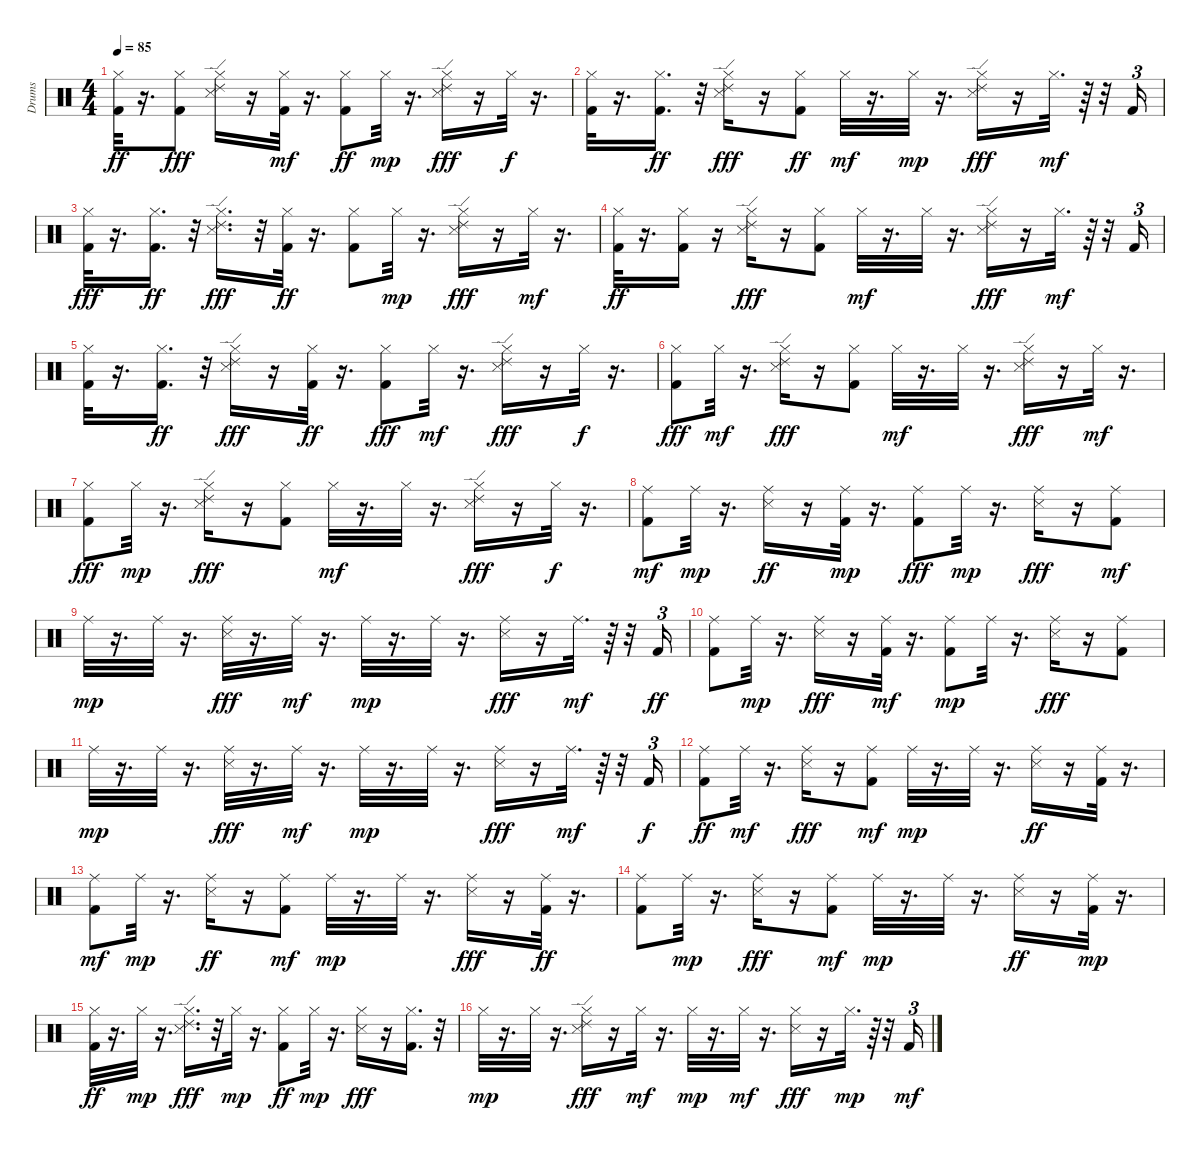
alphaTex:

\track ("Drums" "Drums") {instrument percussion}
\staff {score}
\articulation defaults
\ts (4 4)
\tempo 85
\clef neutral
\ks c
("Hi-Hat (closed)" "Kick (hit) 2").32{dy ff} r.16{d} ("Hi-Hat (closed)" "Kick (hit) 2").8{dy fff} ("Ride (edge) 2" "Hi-Hat (closed)" "Snare (side stick) 3").16 r.16 ("Hi-Hat (closed)" "Kick (hit) 2").32{dy mf} r.16{d} ("Hi-Hat (closed)" "Kick (hit) 2").8{dy ff} "Hi-Hat (closed)".32{dy mp} r.16{d} ("Ride (edge) 2" "Hi-Hat (closed)" "Snare (side stick) 3").16{dy fff} r.16 "Hi-Hat (closed)".32{dy f} r.16{d} |
("Hi-Hat (closed)" "Kick (hit) 2").32 r.16{d} ("Hi-Hat (closed)" "Kick (hit) 2").16{d dy ff} r.32 ("Ride (edge) 2" "Hi-Hat (closed)" "Snare (side stick) 3").16{dy fff} r.16 ("Hi-Hat (closed)" "Kick (hit) 2").8{dy ff} "Hi-Hat (closed)".32{dy mf} r.16{d} "Hi-Hat (closed)".32{dy mp} r.16{d} ("Ride (edge) 2" "Hi-Hat (closed)" "Snare (side stick) 3").16{dy fff} r.16 "Hi-Hat (closed)".32{d dy mf} r.64 r.32 "Kick (hit) 2".16{tu (3 2)} |
("Hi-Hat (closed)" "Kick (hit) 2").32{dy fff} r.16{d} ("Hi-Hat (closed)" "Kick (hit) 2").16{d dy ff} r.32 ("Ride (edge) 2" "Hi-Hat (closed)" "Snare (side stick) 3").16{d dy fff} r.32 ("Hi-Hat (closed)" "Kick (hit) 2").32{dy ff} r.16{d} ("Hi-Hat (closed)" "Kick (hit) 2").8 "Hi-Hat (closed)".32{dy mp} r.16{d} ("Ride (edge) 2" "Hi-Hat (closed)" "Snare (side stick) 3").16{dy fff} r.16 "Hi-Hat (closed)".32{dy mf} r.16{d} |
("Hi-Hat (closed)" "Kick (hit) 2").32{dy ff} r.16{d} ("Hi-Hat (closed)" "Kick (hit) 2").16 r.16 ("Ride (edge) 2" "Hi-Hat (closed)" "Snare (side stick) 3").16{dy fff} r.16 ("Hi-Hat (closed)" "Kick (hit) 2").8 "Hi-Hat (closed)".32{dy mf} r.16{d} "Hi-Hat (closed)".32 r.16{d} ("Ride (edge) 2" "Hi-Hat (closed)" "Snare (side stick) 3").16{dy fff} r.16 "Hi-Hat (closed)".32{d dy mf} r.64 r.32 "Kick (hit) 2".16{tu (3 2)} |
("Hi-Hat (closed)" "Kick (hit) 2").32 r.16{d} ("Hi-Hat (closed)" "Kick (hit) 2").16{d dy ff} r.32 ("Ride (edge) 2" "Hi-Hat (closed)" "Snare (side stick) 3").16{dy fff} r.16 ("Hi-Hat (closed)" "Kick (hit) 2").32{dy ff} r.16{d} ("Hi-Hat (closed)" "Kick (hit) 2").8{dy fff} "Hi-Hat (closed)".32{dy mf} r.16{d} ("Ride (edge) 2" "Hi-Hat (closed)" "Snare (side stick) 3").16{dy fff} r.16 "Hi-Hat (closed)".32{dy f} r.16{d} |
("Hi-Hat (closed)" "Kick (hit) 2").8{dy fff} "Hi-Hat (closed)".32{dy mf} r.16{d} ("Ride (edge) 2" "Hi-Hat (closed)" "Snare (side stick) 3").16{dy fff} r.16 ("Hi-Hat (closed)" "Kick (hit) 2").8 "Hi-Hat (closed)".32{dy mf} r.16{d} "Hi-Hat (closed)".32 r.16{d} ("Ride (edge) 2" "Hi-Hat (closed)" "Snare (side stick) 3").16{dy fff} r.16 "Hi-Hat (closed)".32{dy mf} r.16{d} |
("Hi-Hat (closed)" "Kick (hit) 2").8{dy fff} "Hi-Hat (closed)".32{dy mp} r.16{d} ("Ride (edge) 2" "Hi-Hat (closed)" "Snare (side stick) 3").16{dy fff} r.16 ("Hi-Hat (closed)" "Kick (hit) 2").8 "Hi-Hat (closed)".32{dy mf} r.16{d} "Hi-Hat (closed)".32 r.16{d} ("Ride (edge) 2" "Hi-Hat (closed)" "Snare (side stick) 3").16{dy fff} r.16 "Hi-Hat (closed)".32{dy f} r.16{d} |
("Kick (hit) 2" "Ride (middle)").8{dy mf} "Ride (middle)".32{dy mp} r.16{d} ("Snare (side stick) 3" "Ride (middle)").16{dy ff} r.16 ("Kick (hit) 2" "Ride (middle)").32{dy mp} r.16{d} ("Ride (middle)" "Kick (hit) 2").8{dy fff} "Ride (middle)".32{dy mp} r.16{d} ("Ride (middle)" "Snare (side stick) 3").16{dy fff} r.16 ("Kick (hit) 2" "Ride (middle)").8{dy mf} |
"Ride (middle)".32{dy mp} r.16{d} "Ride (middle)".32 r.16{d} ("Ride (middle)" "Snare (side stick) 3").32{dy fff} r.16{d} "Ride (middle)".32{dy mf} r.16{d} "Ride (middle)".32{dy mp} r.16{d} "Ride (middle)".32 r.16{d} ("Ride (middle)" "Snare (side stick) 3").16{dy fff} r.16 "Ride (middle)".32{d dy mf} r.64 r.32 "Kick (hit) 2".16{tu (3 2) dy ff} |
("Ride (middle)" "Kick (hit) 2").8 "Ride (middle)".32{dy mp} r.16{d} ("Ride (middle)" "Snare (side stick) 3").16{dy fff} r.16 ("Ride (middle)" "Kick (hit) 2").32{dy mf} r.16{d} ("Kick (hit) 2" "Ride (middle)").8{dy mp} "Ride (middle)".32 r.16{d} ("Ride (middle)" "Snare (side stick) 3").16{dy fff} r.16 ("Ride (middle)" "Kick (hit) 2").8 |
"Ride (middle)".32{dy mp} r.16{d} "Ride (middle)".32 r.16{d} ("Ride (middle)" "Snare (side stick) 3").32{dy fff} r.16{d} "Ride (middle)".32{dy mf} r.16{d} "Ride (middle)".32{dy mp} r.16{d} "Ride (middle)".32 r.16{d} ("Ride (middle)" "Snare (side stick) 3").16{dy fff} r.16 "Ride (middle)".32{d dy mf} r.64 r.32 "Kick (hit) 2".16{tu (3 2) dy f} |
("Ride (middle)" "Kick (hit) 2").8{dy ff} "Ride (middle)".32{dy mf} r.16{d} ("Ride (middle)" "Snare (side stick) 3").16{dy fff} r.16 ("Kick (hit) 2" "Ride (middle)").8{dy mf} "Ride (middle)".32{dy mp} r.16{d} "Ride (middle)".32 r.16{d} ("Snare (side stick) 3" "Ride (middle)").16{dy ff} r.16 ("Ride (middle)" "Kick (hit) 2").32 r.16{d} |
("Kick (hit) 2" "Ride (middle)").8{dy mf} "Ride (middle)".32{dy mp} r.16{d} ("Snare (side stick) 3" "Ride (middle)").16{dy ff} r.16 ("Kick (hit) 2" "Ride (middle)").8{dy mf} "Ride (middle)".32{dy mp} r.16{d} "Ride (middle)".32 r.16{d} ("Ride (middle)" "Snare (side stick) 3").16{dy fff} r.16 ("Ride (middle)" "Kick (hit) 2").32{dy ff} r.16{d} |
("Ride (middle)" "Kick (hit) 2").8 "Ride (middle)".32{dy mp} r.16{d} ("Ride (middle)" "Snare (side stick) 3").16{dy fff} r.16 ("Kick (hit) 2" "Ride (middle)").8{dy mf} "Ride (middle)".32{dy mp} r.16{d} "Ride (middle)".32 r.16{d} ("Snare (side stick) 3" "Ride (middle)").16{dy ff} r.16 ("Ride (middle)" "Kick (hit) 2").32{dy mp} r.16{d} |
("Hi-Hat (closed)" "Kick (hit) 2").32{dy ff} r.16{d} "Hi-Hat (closed)".32{dy mp} r.16{d} ("Ride (edge) 2" "Hi-Hat (closed)" "Snare (side stick) 3").16{d dy fff} r.32 "Hi-Hat (closed)".32{dy mp} r.16{d} ("Hi-Hat (closed)" "Kick (hit) 2").8{dy ff} "Hi-Hat (closed)".32{dy mp} r.16{d} ("Hi-Hat (closed)" "Snare (side stick) 3").16{dy fff} r.16 ("Hi-Hat (closed)" "Kick (hit) 2").16{d} r.32 |
"Hi-Hat (closed)".32{dy mp} r.16{d} "Hi-Hat (closed)".32 r.16{d} ("Ride (edge) 2" "Hi-Hat (closed)" "Snare (side stick) 3").16{dy fff} r.16 "Hi-Hat (closed)".32{dy mf} r.16{d} "Hi-Hat (closed)".32{dy mp} r.16{d} "Hi-Hat (closed)".32{dy mf} r.16{d} ("Hi-Hat (closed)" "Snare (side stick) 3").16{dy fff} r.16 "Hi-Hat (closed)".32{d dy mp} r.64 r.32 "Kick (hit) 2".16{tu (3 2) dy mf}
